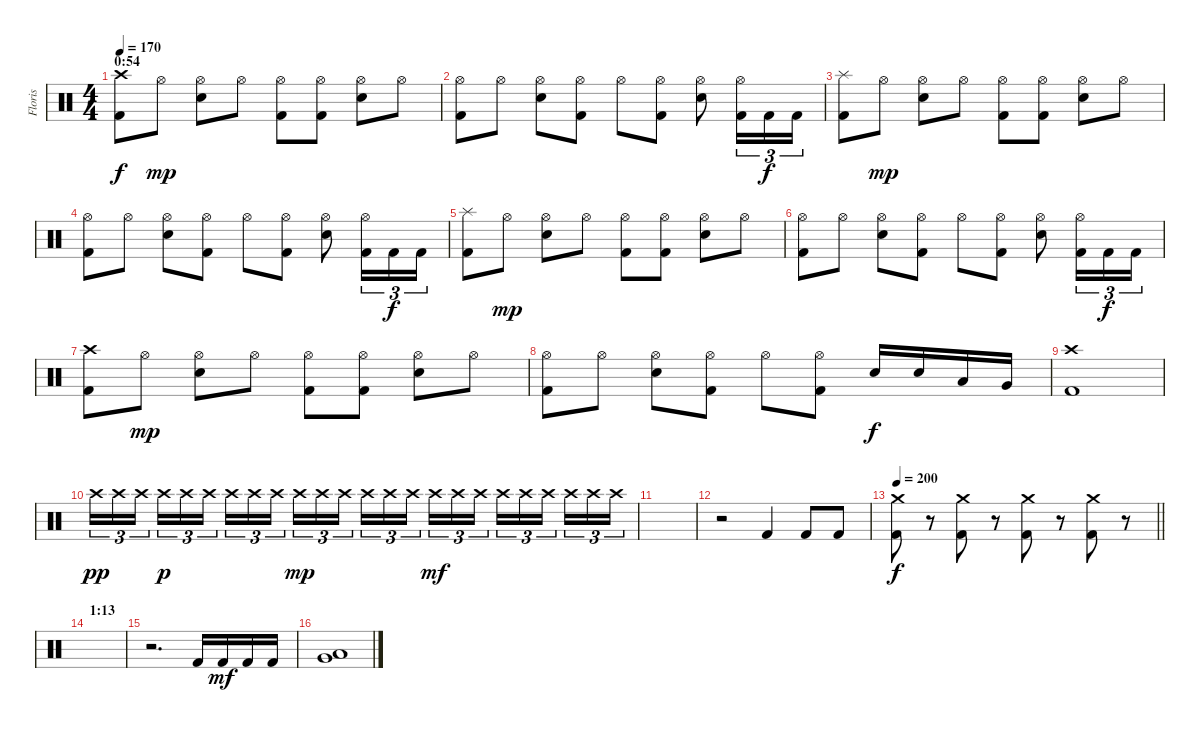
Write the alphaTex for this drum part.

\track ("Floris" "Floris") {instrument percussion}
\staff {score}
\articulation defaults
\ts (4 4)
\section ("" "0:54")
\tempo 170
\clef neutral
\ks c
("Crash high (hit)" "Kick (hit) 2").8{dy f} "Hi-Hat (open)".8{dy mp} ("Hi-Hat (open)" "Electric Snare (hit)").8 "Hi-Hat (open)".8 ("Hi-Hat (open)" "Kick (hit) 2").8 ("Hi-Hat (open)" "Kick (hit) 2").8 ("Hi-Hat (open)" "Electric Snare (hit)").8 "Hi-Hat (open)".8 |
("Hi-Hat (open)" "Kick (hit) 2").8 "Hi-Hat (open)".8 ("Hi-Hat (open)" "Electric Snare (hit)").8 ("Hi-Hat (open)" "Kick (hit) 2").8 "Hi-Hat (open)".8 ("Hi-Hat (open)" "Kick (hit) 2").8 ("Hi-Hat (open)" "Electric Snare (hit)").8 ("Hi-Hat (open)" "Kick (hit) 2").16{tu (3 2)} "Kick (hit) 2".16{tu (3 2) dy f} "Kick (hit) 2".16{tu (3 2)} |
("Splash (hit)" "Kick (hit) 2").8 "Hi-Hat (open)".8{dy mp} ("Hi-Hat (open)" "Electric Snare (hit)").8 "Hi-Hat (open)".8 ("Hi-Hat (open)" "Kick (hit) 2").8 ("Hi-Hat (open)" "Kick (hit) 2").8 ("Hi-Hat (open)" "Electric Snare (hit)").8 "Hi-Hat (open)".8 |
("Hi-Hat (open)" "Kick (hit) 2").8 "Hi-Hat (open)".8 ("Hi-Hat (open)" "Electric Snare (hit)").8 ("Hi-Hat (open)" "Kick (hit) 2").8 "Hi-Hat (open)".8 ("Hi-Hat (open)" "Kick (hit) 2").8 ("Hi-Hat (open)" "Electric Snare (hit)").8 ("Hi-Hat (open)" "Kick (hit) 2").16{tu (3 2)} "Kick (hit) 2".16{tu (3 2) dy f} "Kick (hit) 2".16{tu (3 2)} |
("Splash (hit)" "Kick (hit) 2").8 "Hi-Hat (open)".8{dy mp} ("Hi-Hat (open)" "Electric Snare (hit)").8 "Hi-Hat (open)".8 ("Hi-Hat (open)" "Kick (hit) 2").8 ("Hi-Hat (open)" "Kick (hit) 2").8 ("Hi-Hat (open)" "Electric Snare (hit)").8 "Hi-Hat (open)".8 |
("Hi-Hat (open)" "Kick (hit) 2").8 "Hi-Hat (open)".8 ("Hi-Hat (open)" "Electric Snare (hit)").8 ("Hi-Hat (open)" "Kick (hit) 2").8 "Hi-Hat (open)".8 ("Hi-Hat (open)" "Kick (hit) 2").8 ("Hi-Hat (open)" "Electric Snare (hit)").8 ("Hi-Hat (open)" "Kick (hit) 2").16{tu (3 2)} "Kick (hit) 2".16{tu (3 2) dy f} "Kick (hit) 2".16{tu (3 2)} |
("Crash high (hit)" "Kick (hit) 2").8 "Hi-Hat (open)".8{dy mp} ("Hi-Hat (open)" "Electric Snare (hit)").8 "Hi-Hat (open)".8 ("Hi-Hat (open)" "Kick (hit) 2").8 ("Hi-Hat (open)" "Kick (hit) 2").8 ("Hi-Hat (open)" "Electric Snare (hit)").8 "Hi-Hat (open)".8 |
("Hi-Hat (open)" "Kick (hit) 2").8 "Hi-Hat (open)".8 ("Hi-Hat (open)" "Electric Snare (hit)").8 ("Hi-Hat (open)" "Kick (hit) 2").8 "Hi-Hat (open)".8 ("Hi-Hat (open)" "Kick (hit) 2").8 "Electric Snare (hit)".16{dy f} "Electric Snare (hit)".16 "Low Tom (hit)".16 "Very Low Tom (hit)".16 |
("Crash high (hit)" "Kick (hit) 2").1 |
"Crash high (hit)".16{tu (3 2) dy pp} "Crash high (hit)".16{tu (3 2)} "Crash high (hit)".16{tu (3 2) beam splitsecondary} "Crash high (hit)".16{tu (3 2) dy p} "Crash high (hit)".16{tu (3 2)} "Crash high (hit)".16{tu (3 2)} "Crash high (hit)".16{tu (3 2)} "Crash high (hit)".16{tu (3 2)} "Crash high (hit)".16{tu (3 2) beam splitsecondary} "Crash high (hit)".16{tu (3 2) dy mp} "Crash high (hit)".16{tu (3 2)} "Crash high (hit)".16{tu (3 2)} "Crash high (hit)".16{tu (3 2)} "Crash high (hit)".16{tu (3 2)} "Crash high (hit)".16{tu (3 2) beam splitsecondary} "Crash high (hit)".16{tu (3 2) dy mf} "Crash high (hit)".16{tu (3 2)} "Crash high (hit)".16{tu (3 2)} "Crash high (hit)".16{tu (3 2)} "Crash high (hit)".16{tu (3 2)} "Crash high (hit)".16{tu (3 2) beam splitsecondary} "Crash high (hit)".16{tu (3 2)} "Crash high (hit)".16{tu (3 2)} "Crash high (hit)".16{tu (3 2)} |
|
r.2 "Kick (hit) 2".4 "Kick (hit) 2".8 "Kick (hit) 2".8 |
\tempo 200
\barLineRight lightlight
("Crash medium (hit)" "Kick (hit) 2").8{dy f} r.8{volume 0} ("Crash medium (hit)" "Kick (hit) 2").8{volume 16} r.8{volume 0} ("Crash medium (hit)" "Kick (hit) 2").8{volume 16} r.8{volume 0} ("Crash medium (hit)" "Kick (hit) 2").8{volume 16} r.8{volume 0} |
\section ("" "1:13")
|
r.2{d volume 16} "Kick (hit) 2".16 "Kick (hit) 2".16{dy mf} "Kick (hit) 2".16 "Kick (hit) 2".16 |
("Low Floor Tom (hit)" "Very Low Tom (hit)").1
